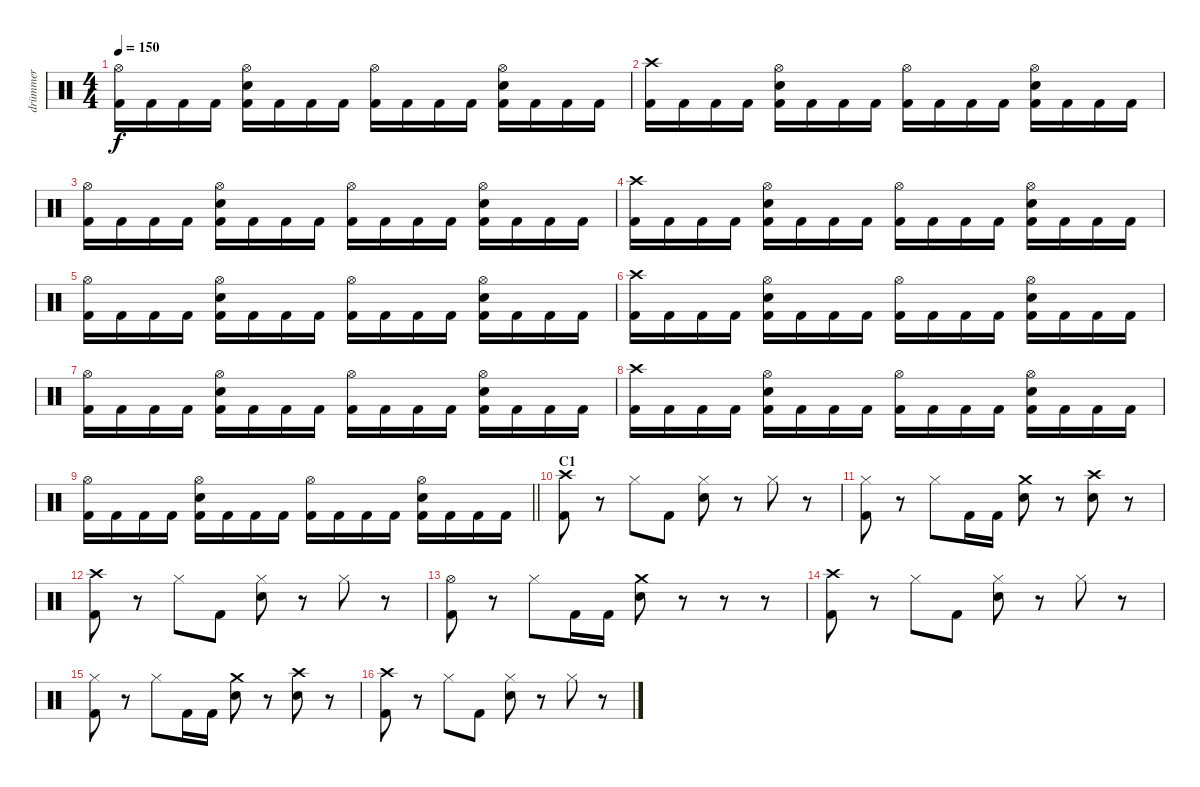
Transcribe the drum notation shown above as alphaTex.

\track ("drümmer" "drümmer") {instrument percussion}
\staff {score}
\articulation defaults
\ts (4 4)
\tempo 150
\clef neutral
\ks c
("Hi-Hat (open)" "Kick (hit) 2").16{dy f} "Kick (hit) 2".16 "Kick (hit) 2".16 "Kick (hit) 2".16 ("Hi-Hat (open)" "Snare (hit) 2" "Kick (hit) 2").16 "Kick (hit) 2".16 "Kick (hit) 2".16 "Kick (hit) 2".16 ("Hi-Hat (open)" "Kick (hit) 2").16 "Kick (hit) 2".16 "Kick (hit) 2".16 "Kick (hit) 2".16 ("Hi-Hat (open)" "Snare (hit) 2" "Kick (hit) 2").16 "Kick (hit) 2".16 "Kick (hit) 2".16 "Kick (hit) 2".16 |
("Crash high (hit)" "Kick (hit) 2").16 "Kick (hit) 2".16 "Kick (hit) 2".16 "Kick (hit) 2".16 ("Hi-Hat (open)" "Snare (hit) 2" "Kick (hit) 2").16 "Kick (hit) 2".16 "Kick (hit) 2".16 "Kick (hit) 2".16 ("Hi-Hat (open)" "Kick (hit) 2").16 "Kick (hit) 2".16 "Kick (hit) 2".16 "Kick (hit) 2".16 ("Hi-Hat (open)" "Snare (hit) 2" "Kick (hit) 2").16 "Kick (hit) 2".16 "Kick (hit) 2".16 "Kick (hit) 2".16 |
("Hi-Hat (open)" "Kick (hit) 2").16 "Kick (hit) 2".16 "Kick (hit) 2".16 "Kick (hit) 2".16 ("Hi-Hat (open)" "Snare (hit) 2" "Kick (hit) 2").16 "Kick (hit) 2".16 "Kick (hit) 2".16 "Kick (hit) 2".16 ("Hi-Hat (open)" "Kick (hit) 2").16 "Kick (hit) 2".16 "Kick (hit) 2".16 "Kick (hit) 2".16 ("Hi-Hat (open)" "Snare (hit) 2" "Kick (hit) 2").16 "Kick (hit) 2".16 "Kick (hit) 2".16 "Kick (hit) 2".16 |
("Crash high (hit)" "Kick (hit) 2").16 "Kick (hit) 2".16 "Kick (hit) 2".16 "Kick (hit) 2".16 ("Hi-Hat (open)" "Snare (hit) 2" "Kick (hit) 2").16 "Kick (hit) 2".16 "Kick (hit) 2".16 "Kick (hit) 2".16 ("Hi-Hat (open)" "Kick (hit) 2").16 "Kick (hit) 2".16 "Kick (hit) 2".16 "Kick (hit) 2".16 ("Hi-Hat (open)" "Snare (hit) 2" "Kick (hit) 2").16 "Kick (hit) 2".16 "Kick (hit) 2".16 "Kick (hit) 2".16 |
("Hi-Hat (open)" "Kick (hit) 2").16 "Kick (hit) 2".16 "Kick (hit) 2".16 "Kick (hit) 2".16 ("Hi-Hat (open)" "Snare (hit) 2" "Kick (hit) 2").16 "Kick (hit) 2".16 "Kick (hit) 2".16 "Kick (hit) 2".16 ("Hi-Hat (open)" "Kick (hit) 2").16 "Kick (hit) 2".16 "Kick (hit) 2".16 "Kick (hit) 2".16 ("Hi-Hat (open)" "Snare (hit) 2" "Kick (hit) 2").16 "Kick (hit) 2".16 "Kick (hit) 2".16 "Kick (hit) 2".16 |
("Crash high (hit)" "Kick (hit) 2").16 "Kick (hit) 2".16 "Kick (hit) 2".16 "Kick (hit) 2".16 ("Hi-Hat (open)" "Snare (hit) 2" "Kick (hit) 2").16 "Kick (hit) 2".16 "Kick (hit) 2".16 "Kick (hit) 2".16 ("Hi-Hat (open)" "Kick (hit) 2").16 "Kick (hit) 2".16 "Kick (hit) 2".16 "Kick (hit) 2".16 ("Hi-Hat (open)" "Snare (hit) 2" "Kick (hit) 2").16 "Kick (hit) 2".16 "Kick (hit) 2".16 "Kick (hit) 2".16 |
("Hi-Hat (open)" "Kick (hit) 2").16 "Kick (hit) 2".16 "Kick (hit) 2".16 "Kick (hit) 2".16 ("Hi-Hat (open)" "Snare (hit) 2" "Kick (hit) 2").16 "Kick (hit) 2".16 "Kick (hit) 2".16 "Kick (hit) 2".16 ("Hi-Hat (open)" "Kick (hit) 2").16 "Kick (hit) 2".16 "Kick (hit) 2".16 "Kick (hit) 2".16 ("Hi-Hat (open)" "Snare (hit) 2" "Kick (hit) 2").16 "Kick (hit) 2".16 "Kick (hit) 2".16 "Kick (hit) 2".16 |
("Crash high (hit)" "Kick (hit) 2").16 "Kick (hit) 2".16 "Kick (hit) 2".16 "Kick (hit) 2".16 ("Hi-Hat (open)" "Snare (hit) 2" "Kick (hit) 2").16 "Kick (hit) 2".16 "Kick (hit) 2".16 "Kick (hit) 2".16 ("Hi-Hat (open)" "Kick (hit) 2").16 "Kick (hit) 2".16 "Kick (hit) 2".16 "Kick (hit) 2".16 ("Hi-Hat (open)" "Snare (hit) 2" "Kick (hit) 2").16 "Kick (hit) 2".16 "Kick (hit) 2".16 "Kick (hit) 2".16 |
\barLineRight lightlight
("Hi-Hat (open)" "Kick (hit) 2").16 "Kick (hit) 2".16 "Kick (hit) 2".16 "Kick (hit) 2".16 ("Hi-Hat (open)" "Snare (hit) 2" "Kick (hit) 2").16 "Kick (hit) 2".16 "Kick (hit) 2".16 "Kick (hit) 2".16 ("Hi-Hat (open)" "Kick (hit) 2").16 "Kick (hit) 2".16 "Kick (hit) 2".16 "Kick (hit) 2".16 ("Hi-Hat (open)" "Snare (hit) 2" "Kick (hit) 2").16 "Kick (hit) 2".16 "Kick (hit) 2".16 "Kick (hit) 2".16 |
\section ("" "C1")
("Crash high (hit)" "Kick (hit) 2").8 r.8 "Hi-Hat (closed)".8 "Kick (hit) 2".8 ("Hi-Hat (closed)" "Snare (hit) 2").8 r.8 "Hi-Hat (closed)".8 r.8 |
("Hi-Hat (closed)" "Kick (hit) 2").8 r.8 "Hi-Hat (closed)".8 "Kick (hit) 2".16 "Kick (hit) 2".16 ("Crash medium (hit)" "Snare (hit) 2").8 r.8 ("Crash high (hit)" "Snare (hit) 2").8 r.8 |
("Crash high (hit)" "Kick (hit) 2").8 r.8 "Hi-Hat (closed)".8 "Kick (hit) 2".8 ("Hi-Hat (closed)" "Snare (hit) 2").8 r.8 "Hi-Hat (closed)".8 r.8 |
("Hi-Hat (open)" "Kick (hit) 2").8 r.8 "Hi-Hat (closed)".8 "Kick (hit) 2".16 "Kick (hit) 2".16 ("Crash medium (hit)" "Snare (hit) 2").8 r.8 r.8 r.8 |
("Crash high (hit)" "Kick (hit) 2").8 r.8 "Hi-Hat (closed)".8 "Kick (hit) 2".8 ("Hi-Hat (closed)" "Snare (hit) 2").8 r.8 "Hi-Hat (closed)".8 r.8 |
("Hi-Hat (closed)" "Kick (hit) 2").8 r.8 "Hi-Hat (closed)".8 "Kick (hit) 2".16 "Kick (hit) 2".16 ("Crash medium (hit)" "Snare (hit) 2").8 r.8 ("Crash high (hit)" "Snare (hit) 2").8 r.8 |
("Crash high (hit)" "Kick (hit) 2").8 r.8 "Hi-Hat (closed)".8 "Kick (hit) 2".8 ("Hi-Hat (closed)" "Snare (hit) 2").8 r.8 "Hi-Hat (closed)".8 r.8
